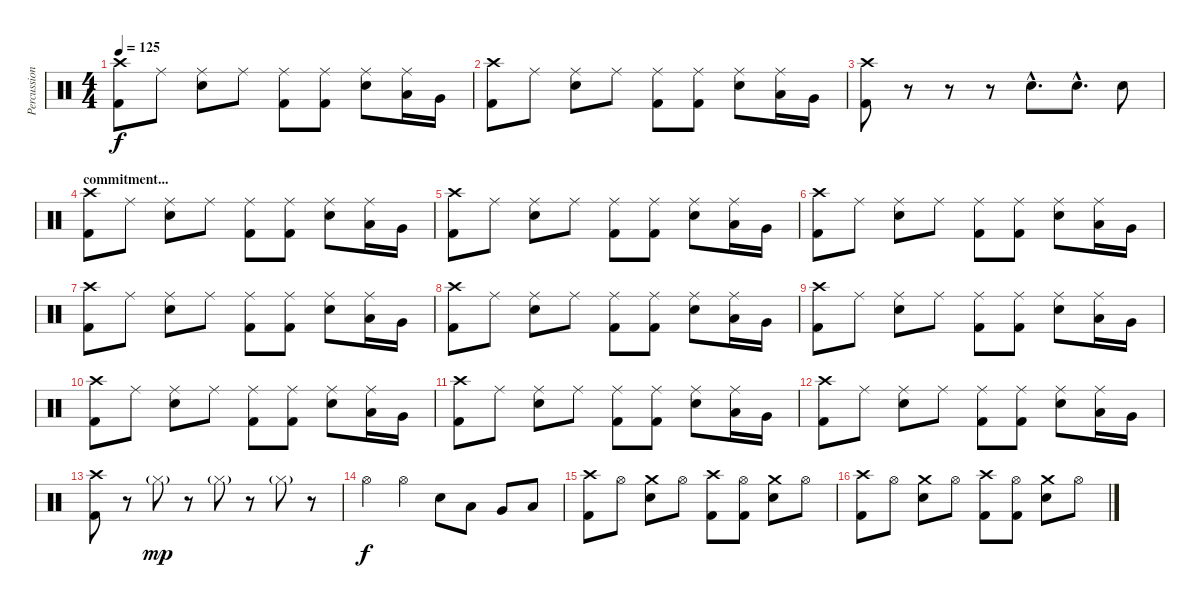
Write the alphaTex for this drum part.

\track ("Percussion" "Percussion") {instrument percussion}
\staff {score}
\articulation defaults
\ts (4 4)
\tempo 125
\clef neutral
\ks c
("Crash high (hit)" "Kick (hit) 2").8{dy f} "Ride (middle)".8 ("Ride (middle)" "Electric Snare (hit)").8 "Ride (middle)".8 ("Ride (middle)" "Kick (hit) 2").8 ("Ride (middle)" "Kick (hit) 2").8 ("Ride (middle)" "Electric Snare (hit)").8 ("Ride (middle)" "Low Tom (hit)").16 "Very Low Tom (hit)".16 |
("Crash high (hit)" "Kick (hit) 2").8 "Ride (middle)".8 ("Ride (middle)" "Electric Snare (hit)").8 "Ride (middle)".8 ("Ride (middle)" "Kick (hit) 2").8 ("Ride (middle)" "Kick (hit) 2").8 ("Ride (middle)" "Electric Snare (hit)").8 ("Ride (middle)" "Low Tom (hit)").16 "Very Low Tom (hit)".16 |
("Crash high (hit)" "Kick (hit) 2").8 r.8 r.8 r.8 "Electric Snare (hit)"{hac}.8{d} "Electric Snare (hit)"{hac}.8{d} "Electric Snare (hit)".8 |
\section ("" "commitment...")
("Crash high (hit)" "Kick (hit) 2").8 "Ride (middle)".8 ("Ride (middle)" "Electric Snare (hit)").8 "Ride (middle)".8 ("Ride (middle)" "Kick (hit) 2").8 ("Ride (middle)" "Kick (hit) 2").8 ("Ride (middle)" "Electric Snare (hit)").8 ("Ride (middle)" "Low Tom (hit)").16 "Very Low Tom (hit)".16 |
("Crash high (hit)" "Kick (hit) 2").8 "Ride (middle)".8 ("Ride (middle)" "Electric Snare (hit)").8 "Ride (middle)".8 ("Ride (middle)" "Kick (hit) 2").8 ("Ride (middle)" "Kick (hit) 2").8 ("Ride (middle)" "Electric Snare (hit)").8 ("Ride (middle)" "Low Tom (hit)").16 "Very Low Tom (hit)".16 |
("Crash high (hit)" "Kick (hit) 2").8 "Ride (middle)".8 ("Ride (middle)" "Electric Snare (hit)").8 "Ride (middle)".8 ("Ride (middle)" "Kick (hit) 2").8 ("Ride (middle)" "Kick (hit) 2").8 ("Ride (middle)" "Electric Snare (hit)").8 ("Ride (middle)" "Low Tom (hit)").16 "Very Low Tom (hit)".16 |
("Crash high (hit)" "Kick (hit) 2").8 "Ride (middle)".8 ("Ride (middle)" "Electric Snare (hit)").8 "Ride (middle)".8 ("Ride (middle)" "Kick (hit) 2").8 ("Ride (middle)" "Kick (hit) 2").8 ("Ride (middle)" "Electric Snare (hit)").8 ("Ride (middle)" "Low Tom (hit)").16 "Very Low Tom (hit)".16 |
("Crash high (hit)" "Kick (hit) 2").8 "Ride (middle)".8 ("Ride (middle)" "Electric Snare (hit)").8 "Ride (middle)".8 ("Ride (middle)" "Kick (hit) 2").8 ("Ride (middle)" "Kick (hit) 2").8 ("Ride (middle)" "Electric Snare (hit)").8 ("Ride (middle)" "Low Tom (hit)").16 "Very Low Tom (hit)".16 |
("Crash high (hit)" "Kick (hit) 2").8 "Ride (middle)".8 ("Ride (middle)" "Electric Snare (hit)").8 "Ride (middle)".8 ("Ride (middle)" "Kick (hit) 2").8 ("Ride (middle)" "Kick (hit) 2").8 ("Ride (middle)" "Electric Snare (hit)").8 ("Ride (middle)" "Low Tom (hit)").16 "Very Low Tom (hit)".16 |
("Crash high (hit)" "Kick (hit) 2").8 "Ride (middle)".8 ("Ride (middle)" "Electric Snare (hit)").8 "Ride (middle)".8 ("Ride (middle)" "Kick (hit) 2").8 ("Ride (middle)" "Kick (hit) 2").8 ("Ride (middle)" "Electric Snare (hit)").8 ("Ride (middle)" "Low Tom (hit)").16 "Very Low Tom (hit)".16 |
("Crash high (hit)" "Kick (hit) 2").8 "Ride (middle)".8 ("Ride (middle)" "Electric Snare (hit)").8 "Ride (middle)".8 ("Ride (middle)" "Kick (hit) 2").8 ("Ride (middle)" "Kick (hit) 2").8 ("Ride (middle)" "Electric Snare (hit)").8 ("Ride (middle)" "Low Tom (hit)").16 "Very Low Tom (hit)".16 |
("Crash high (hit)" "Kick (hit) 2").8 "Ride (middle)".8 ("Ride (middle)" "Electric Snare (hit)").8 "Ride (middle)".8 ("Ride (middle)" "Kick (hit) 2").8 ("Ride (middle)" "Kick (hit) 2").8 ("Ride (middle)" "Electric Snare (hit)").8 ("Ride (middle)" "Low Tom (hit)").16 "Very Low Tom (hit)".16 |
("Crash high (hit)" "Kick (hit) 2").8 r.8 "Hi-Hat (closed)"{g}.8{dy mp} r.8 "Hi-Hat (closed)"{g}.8 r.8 "Hi-Hat (closed)"{g}.8 r.8 |
"Hi-Hat (open)".4{dy f} "Hi-Hat (open)".4 "Electric Snare (hit)".8 "Low Tom (hit)".8 "Very Low Tom (hit)".8 "Low Floor Tom (hit)".8 |
("Crash high (hit)" "Kick (hit) 2").8 "Hi-Hat (open)".8 ("Crash medium (hit)" "Electric Snare (hit)").8 "Hi-Hat (open)".8 ("Crash high (hit)" "Kick (hit) 2").8 ("Hi-Hat (open)" "Kick (hit) 2").8 ("Crash medium (hit)" "Electric Snare (hit)").8 "Hi-Hat (open)".8 |
("Crash high (hit)" "Kick (hit) 2").8 "Hi-Hat (open)".8 ("Crash medium (hit)" "Electric Snare (hit)").8 "Hi-Hat (open)".8 ("Crash high (hit)" "Kick (hit) 2").8 ("Hi-Hat (open)" "Kick (hit) 2").8 ("Crash medium (hit)" "Electric Snare (hit)").8 "Hi-Hat (open)".8
